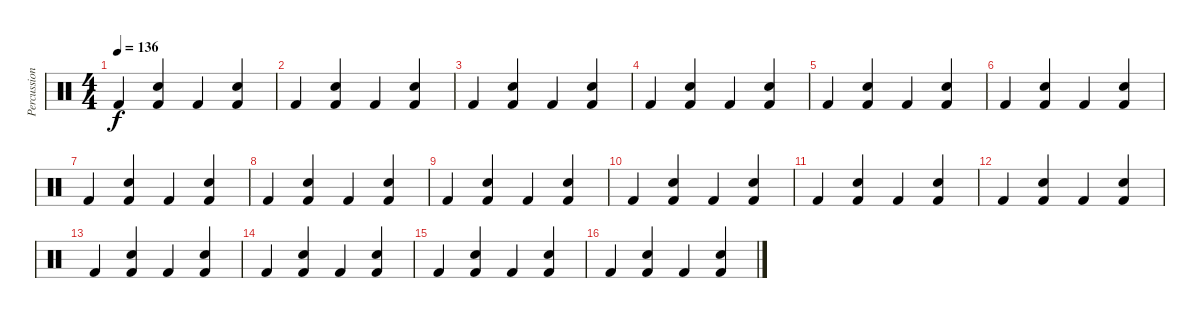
\track ("Percussion" "Percussion") {instrument percussion}
\staff {score}
\articulation defaults
\ts (4 4)
\tempo 136
\clef neutral
\ks c "Kick (hit) 2".4{dy f}
("Kick (hit) 2" "Snare (hit) 2").4 "Kick (hit) 2".4 ("Kick (hit) 2" "Snare (hit) 2").4 |
"Kick (hit) 2".4 ("Kick (hit) 2" "Snare (hit) 2").4 "Kick (hit) 2".4 ("Kick (hit) 2" "Snare (hit) 2").4 |
"Kick (hit) 2".4 ("Kick (hit) 2" "Snare (hit) 2").4 "Kick (hit) 2".4 ("Kick (hit) 2" "Snare (hit) 2").4 |
"Kick (hit) 2".4 ("Kick (hit) 2" "Snare (hit) 2").4 "Kick (hit) 2".4 ("Kick (hit) 2" "Snare (hit) 2").4 |
"Kick (hit) 2".4 ("Kick (hit) 2" "Snare (hit) 2").4 "Kick (hit) 2".4 ("Kick (hit) 2" "Snare (hit) 2").4 |
"Kick (hit) 2".4 ("Kick (hit) 2" "Snare (hit) 2").4 "Kick (hit) 2".4 ("Kick (hit) 2" "Snare (hit) 2").4 |
"Kick (hit) 2".4 ("Kick (hit) 2" "Snare (hit) 2").4 "Kick (hit) 2".4 ("Kick (hit) 2" "Snare (hit) 2").4 |
"Kick (hit) 2".4 ("Kick (hit) 2" "Snare (hit) 2").4 "Kick (hit) 2".4 ("Kick (hit) 2" "Snare (hit) 2").4 |
"Kick (hit) 2".4 ("Kick (hit) 2" "Snare (hit) 2").4 "Kick (hit) 2".4 ("Kick (hit) 2" "Snare (hit) 2").4 |
"Kick (hit) 2".4 ("Kick (hit) 2" "Snare (hit) 2").4 "Kick (hit) 2".4 ("Kick (hit) 2" "Snare (hit) 2").4 |
"Kick (hit) 2".4 ("Kick (hit) 2" "Snare (hit) 2").4 "Kick (hit) 2".4 ("Kick (hit) 2" "Snare (hit) 2").4 |
"Kick (hit) 2".4 ("Kick (hit) 2" "Snare (hit) 2").4 "Kick (hit) 2".4 ("Kick (hit) 2" "Snare (hit) 2").4 |
"Kick (hit) 2".4 ("Kick (hit) 2" "Snare (hit) 2").4 "Kick (hit) 2".4 ("Kick (hit) 2" "Snare (hit) 2").4 |
"Kick (hit) 2".4 ("Kick (hit) 2" "Snare (hit) 2").4 "Kick (hit) 2".4 ("Kick (hit) 2" "Snare (hit) 2").4 |
"Kick (hit) 2".4 ("Kick (hit) 2" "Snare (hit) 2").4 "Kick (hit) 2".4 ("Kick (hit) 2" "Snare (hit) 2").4 |
"Kick (hit) 2".4 ("Kick (hit) 2" "Snare (hit) 2").4 "Kick (hit) 2".4 ("Kick (hit) 2" "Snare (hit) 2").4
